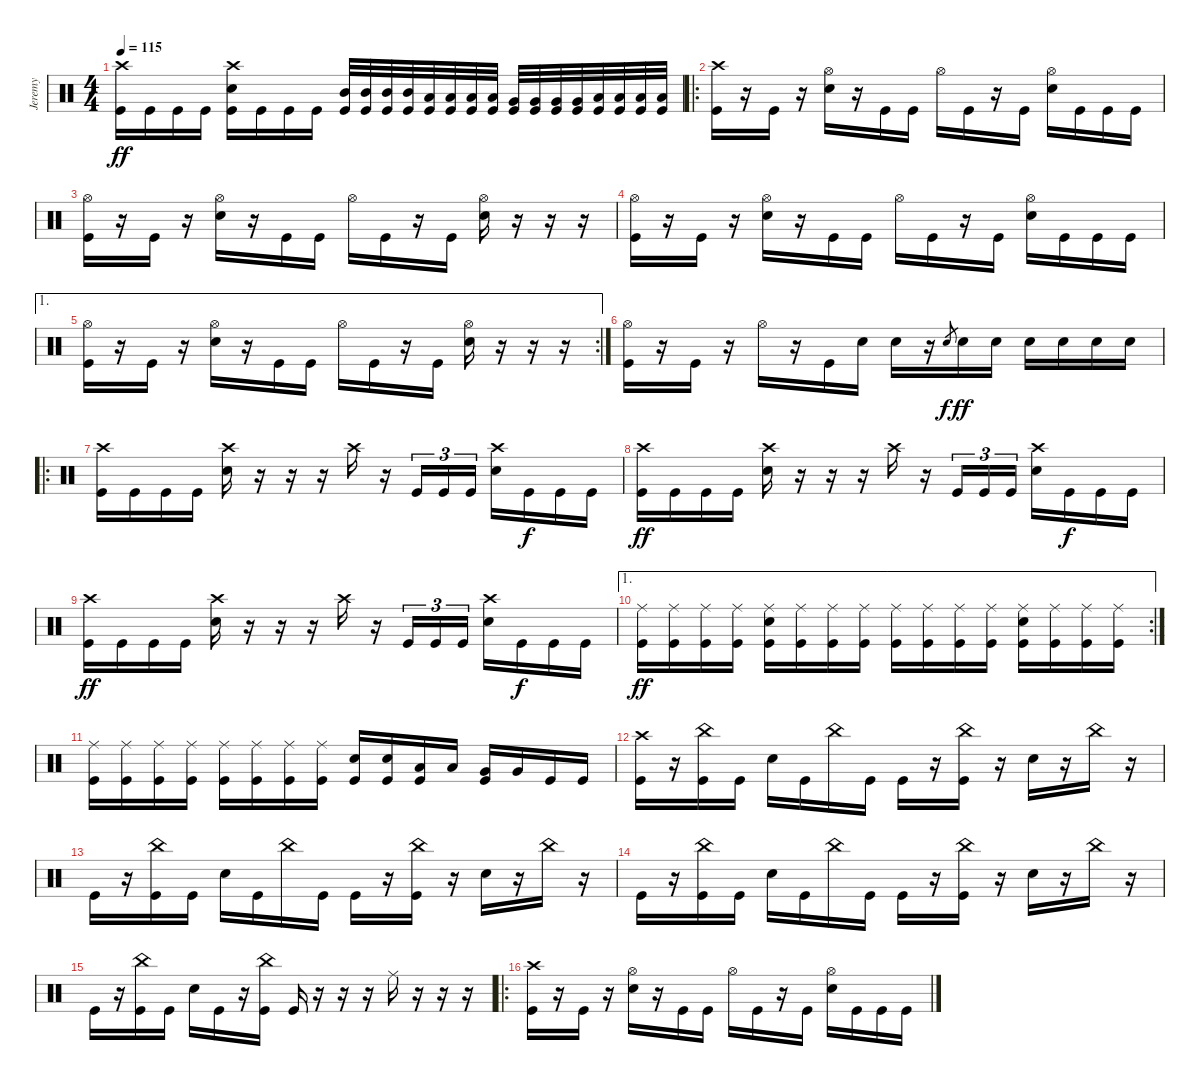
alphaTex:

\track ("Jeremy" "Jeremy") {instrument percussion}
\staff {score}
\articulation defaults
\ts (4 4)
\tempo 115
\clef neutral
\ks c
("Crash high (hit)" "Kick (hit)").16{dy ff} "Kick (hit)".16 "Kick (hit)".16 "Kick (hit)".16 ("Crash high (hit)" "Electric Snare (hit)" "Kick (hit)").16 "Kick (hit)".16 "Kick (hit)".16 "Kick (hit)".16 ("Mid Tom (hit)" "Kick (hit)").32 ("Mid Tom (hit)" "Kick (hit)").32 ("Mid Tom (hit)" "Kick (hit)").32 ("Mid Tom (hit)" "Kick (hit)").32 ("Low Tom (hit)" "Kick (hit)").32 ("Low Tom (hit)" "Kick (hit)").32 ("Low Tom (hit)" "Kick (hit)").32 ("Low Tom (hit)" "Kick (hit)").32 ("Very Low Tom (hit)" "Kick (hit)").32 ("Very Low Tom (hit)" "Kick (hit)").32 ("Very Low Tom (hit)" "Kick (hit)").32 ("Very Low Tom (hit)" "Kick (hit)").32 ("Low Floor Tom (hit)" "Kick (hit)").32 ("Low Floor Tom (hit)" "Kick (hit)").32 ("Low Floor Tom (hit)" "Kick (hit)").32 ("Low Floor Tom (hit)" "Kick (hit)").32 |
\ro
("Crash high (hit)" "Kick (hit)").16 r.16 "Kick (hit)".16 r.16 ("Hi-Hat (open)" "Electric Snare (hit)").16 r.16 "Kick (hit)".16 "Kick (hit)".16 "Hi-Hat (open)".16 "Kick (hit)".16 r.16 "Kick (hit)".16 ("Hi-Hat (open)" "Electric Snare (hit)").16 "Kick (hit)".16 "Kick (hit)".16 "Kick (hit)".16 |
("Hi-Hat (open)" "Kick (hit)").16 r.16 "Kick (hit)".16 r.16 ("Hi-Hat (open)" "Electric Snare (hit)").16 r.16 "Kick (hit)".16 "Kick (hit)".16 "Hi-Hat (open)".16 "Kick (hit)".16 r.16 "Kick (hit)".16 ("Hi-Hat (open)" "Electric Snare (hit)").16 r.16 r.16 r.16 |
("Hi-Hat (open)" "Kick (hit)").16 r.16 "Kick (hit)".16 r.16 ("Hi-Hat (open)" "Electric Snare (hit)").16 r.16 "Kick (hit)".16 "Kick (hit)".16 "Hi-Hat (open)".16 "Kick (hit)".16 r.16 "Kick (hit)".16 ("Hi-Hat (open)" "Electric Snare (hit)").16 "Kick (hit)".16 "Kick (hit)".16 "Kick (hit)".16 |
\ae 1
\rc 2
("Hi-Hat (open)" "Kick (hit)").16 r.16 "Kick (hit)".16 r.16 ("Hi-Hat (open)" "Electric Snare (hit)").16 r.16 "Kick (hit)".16 "Kick (hit)".16 "Hi-Hat (open)".16 "Kick (hit)".16 r.16 "Kick (hit)".16 ("Hi-Hat (open)" "Electric Snare (hit)").16 r.16 r.16 r.16 |
("Hi-Hat (open)" "Kick (hit)").16 r.16 "Kick (hit)".16 r.16 "Hi-Hat (open)".16 r.16 "Kick (hit)".16 "Electric Snare (hit)".16 "Electric Snare (hit)".16 r.16 "Electric Snare (hit)".8{gr dy f} "Electric Snare (hit)".16{dy ff} "Electric Snare (hit)".16 "Electric Snare (hit)".16 "Electric Snare (hit)".16 "Electric Snare (hit)".16 "Electric Snare (hit)".16 |
\ro
("Crash high (hit)" "Kick (hit)").16 "Kick (hit)".16 "Kick (hit)".16 "Kick (hit)".16 ("Crash high (hit)" "Electric Snare (hit)").16 r.16 r.16 r.16 "Crash high (hit)".16 r.16 "Kick (hit)".16{tu (3 2)} "Kick (hit)".16{tu (3 2)} "Kick (hit)".16{tu (3 2)} ("Crash high (hit)" "Electric Snare (hit)").16 "Kick (hit)".16{dy f} "Kick (hit)".16 "Kick (hit)".16 |
("Crash high (hit)" "Kick (hit)").16{dy ff} "Kick (hit)".16 "Kick (hit)".16 "Kick (hit)".16 ("Crash high (hit)" "Electric Snare (hit)").16 r.16 r.16 r.16 "Crash high (hit)".16 r.16 "Kick (hit)".16{tu (3 2)} "Kick (hit)".16{tu (3 2)} "Kick (hit)".16{tu (3 2)} ("Crash high (hit)" "Electric Snare (hit)").16 "Kick (hit)".16{dy f} "Kick (hit)".16 "Kick (hit)".16 |
("Crash high (hit)" "Kick (hit)").16{dy ff} "Kick (hit)".16 "Kick (hit)".16 "Kick (hit)".16 ("Crash high (hit)" "Electric Snare (hit)").16 r.16 r.16 r.16 "Crash high (hit)".16 r.16 "Kick (hit)".16{tu (3 2)} "Kick (hit)".16{tu (3 2)} "Kick (hit)".16{tu (3 2)} ("Crash high (hit)" "Electric Snare (hit)").16 "Kick (hit)".16{dy f} "Kick (hit)".16 "Kick (hit)".16 |
\ae 1
\rc 2
("Ride (middle)" "Kick (hit)").16{dy ff} ("Ride (middle)" "Kick (hit)").16 ("Ride (middle)" "Kick (hit)").16 ("Ride (middle)" "Kick (hit)").16 ("Ride (middle)" "Electric Snare (hit)" "Kick (hit)").16 ("Ride (middle)" "Kick (hit)").16 ("Ride (middle)" "Kick (hit)").16 ("Ride (middle)" "Kick (hit)").16 ("Ride (middle)" "Kick (hit)").16 ("Ride (middle)" "Kick (hit)").16 ("Ride (middle)" "Kick (hit)").16 ("Ride (middle)" "Kick (hit)").16 ("Ride (middle)" "Electric Snare (hit)" "Kick (hit)").16 ("Ride (middle)" "Kick (hit)").16 ("Ride (middle)" "Kick (hit)").16 ("Ride (middle)" "Kick (hit)").16 |
("Ride (middle)" "Kick (hit)").16 ("Ride (middle)" "Kick (hit)").16 ("Ride (middle)" "Kick (hit)").16 ("Ride (middle)" "Kick (hit)").16 ("Ride (middle)" "Kick (hit)").16 ("Ride (middle)" "Kick (hit)").16 ("Ride (middle)" "Kick (hit)").16 ("Ride (middle)" "Kick (hit)").16 ("Electric Snare (hit)" "Kick (hit)").16 ("Electric Snare (hit)" "Kick (hit)").16 ("Low Tom (hit)" "Kick (hit)").16 "Low Tom (hit)".16 ("Very Low Tom (hit)" "Kick (hit)").16 "Very Low Tom (hit)".16 "Kick (hit)".16 "Kick (hit)".16 |
("Crash high (hit)" "Kick (hit)").16 r.16 ("China (hit)" "Kick (hit)").16 "Kick (hit)".16 "Electric Snare (hit)".16 "Kick (hit)".16 "China (hit)".16 "Kick (hit)".16 "Kick (hit)".16 r.16 ("China (hit)" "Kick (hit)").16 r.16 "Electric Snare (hit)".16 r.16 "China (hit)".16 r.16 |
"Kick (hit)".16 r.16 ("China (hit)" "Kick (hit)").16 "Kick (hit)".16 "Electric Snare (hit)".16 "Kick (hit)".16 "China (hit)".16 "Kick (hit)".16 "Kick (hit)".16 r.16 ("China (hit)" "Kick (hit)").16 r.16 "Electric Snare (hit)".16 r.16 "China (hit)".16 r.16 |
"Kick (hit)".16 r.16 ("China (hit)" "Kick (hit)").16 "Kick (hit)".16 "Electric Snare (hit)".16 "Kick (hit)".16 "China (hit)".16 "Kick (hit)".16 "Kick (hit)".16 r.16 ("China (hit)" "Kick (hit)").16 r.16 "Electric Snare (hit)".16 r.16 "China (hit)".16 r.16 |
"Kick (hit)".16 r.16 ("China (hit)" "Kick (hit)").16 "Kick (hit)".16 "Electric Snare (hit)".16 "Kick (hit)".16 r.16 ("China (hit)" "Kick (hit)").16 "Kick (hit)".16 r.16 r.16 r.16 "Ride (middle)".16 r.16 r.16 r.16 |
\ro
("Crash high (hit)" "Kick (hit)").16 r.16 "Kick (hit)".16 r.16 ("Hi-Hat (open)" "Electric Snare (hit)").16 r.16 "Kick (hit)".16 "Kick (hit)".16 "Hi-Hat (open)".16 "Kick (hit)".16 r.16 "Kick (hit)".16 ("Hi-Hat (open)" "Electric Snare (hit)").16 "Kick (hit)".16 "Kick (hit)".16 "Kick (hit)".16
